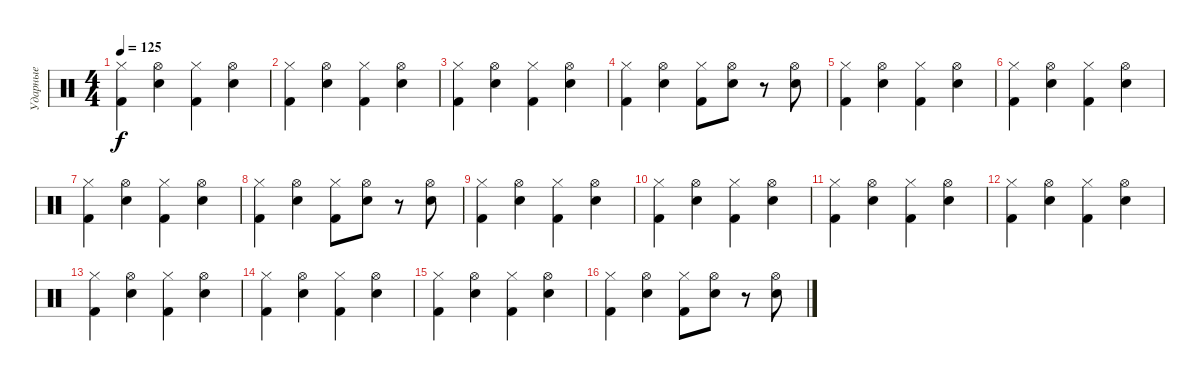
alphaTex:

\track ("Ударные" "Ударные") {instrument percussion}
\staff {score}
\articulation defaults
\ts (4 4)
\tempo 125
\clef neutral
\ks c
("Hi-Hat (closed)" "Kick (hit) 2").4{dy f} ("Hi-Hat (open)" "Electric Snare (hit)").4 ("Hi-Hat (closed)" "Kick (hit) 2").4 ("Hi-Hat (open)" "Electric Snare (hit)").4 |
("Hi-Hat (closed)" "Kick (hit) 2").4 ("Hi-Hat (open)" "Electric Snare (hit)").4 ("Hi-Hat (closed)" "Kick (hit) 2").4 ("Hi-Hat (open)" "Electric Snare (hit)").4 |
("Hi-Hat (closed)" "Kick (hit) 2").4 ("Hi-Hat (open)" "Electric Snare (hit)").4 ("Hi-Hat (closed)" "Kick (hit) 2").4 ("Hi-Hat (open)" "Electric Snare (hit)").4 |
("Hi-Hat (closed)" "Kick (hit) 2").4 ("Hi-Hat (open)" "Electric Snare (hit)").4 ("Hi-Hat (closed)" "Kick (hit) 2").8 ("Hi-Hat (open)" "Electric Snare (hit)").8 r.8 ("Hi-Hat (open)" "Electric Snare (hit)").8 |
("Hi-Hat (closed)" "Kick (hit) 2").4 ("Hi-Hat (open)" "Electric Snare (hit)").4 ("Hi-Hat (closed)" "Kick (hit) 2").4 ("Hi-Hat (open)" "Electric Snare (hit)").4 |
("Hi-Hat (closed)" "Kick (hit) 2").4 ("Hi-Hat (open)" "Electric Snare (hit)").4 ("Hi-Hat (closed)" "Kick (hit) 2").4 ("Hi-Hat (open)" "Electric Snare (hit)").4 |
("Hi-Hat (closed)" "Kick (hit) 2").4 ("Hi-Hat (open)" "Electric Snare (hit)").4 ("Hi-Hat (closed)" "Kick (hit) 2").4 ("Hi-Hat (open)" "Electric Snare (hit)").4 |
("Hi-Hat (closed)" "Kick (hit) 2").4 ("Hi-Hat (open)" "Electric Snare (hit)").4 ("Hi-Hat (closed)" "Kick (hit) 2").8 ("Hi-Hat (open)" "Electric Snare (hit)").8 r.8 ("Hi-Hat (open)" "Electric Snare (hit)").8 |
("Hi-Hat (closed)" "Kick (hit) 2").4 ("Hi-Hat (open)" "Electric Snare (hit)").4 ("Hi-Hat (closed)" "Kick (hit) 2").4 ("Hi-Hat (open)" "Electric Snare (hit)").4 |
("Hi-Hat (closed)" "Kick (hit) 2").4 ("Hi-Hat (open)" "Electric Snare (hit)").4 ("Hi-Hat (closed)" "Kick (hit) 2").4 ("Hi-Hat (open)" "Electric Snare (hit)").4 |
("Hi-Hat (closed)" "Kick (hit) 2").4 ("Hi-Hat (open)" "Electric Snare (hit)").4 ("Hi-Hat (closed)" "Kick (hit) 2").4 ("Hi-Hat (open)" "Electric Snare (hit)").4 |
("Hi-Hat (closed)" "Kick (hit) 2").4 ("Hi-Hat (open)" "Electric Snare (hit)").4 ("Hi-Hat (closed)" "Kick (hit) 2").4 ("Hi-Hat (open)" "Electric Snare (hit)").4 |
("Hi-Hat (closed)" "Kick (hit) 2").4 ("Hi-Hat (open)" "Electric Snare (hit)").4 ("Hi-Hat (closed)" "Kick (hit) 2").4 ("Hi-Hat (open)" "Electric Snare (hit)").4 |
("Hi-Hat (closed)" "Kick (hit) 2").4 ("Hi-Hat (open)" "Electric Snare (hit)").4 ("Hi-Hat (closed)" "Kick (hit) 2").4 ("Hi-Hat (open)" "Electric Snare (hit)").4 |
("Hi-Hat (closed)" "Kick (hit) 2").4 ("Hi-Hat (open)" "Electric Snare (hit)").4 ("Hi-Hat (closed)" "Kick (hit) 2").4 ("Hi-Hat (open)" "Electric Snare (hit)").4 |
("Hi-Hat (closed)" "Kick (hit) 2").4 ("Hi-Hat (open)" "Electric Snare (hit)").4 ("Hi-Hat (closed)" "Kick (hit) 2").8 ("Hi-Hat (open)" "Electric Snare (hit)").8 r.8 ("Hi-Hat (open)" "Electric Snare (hit)").8
